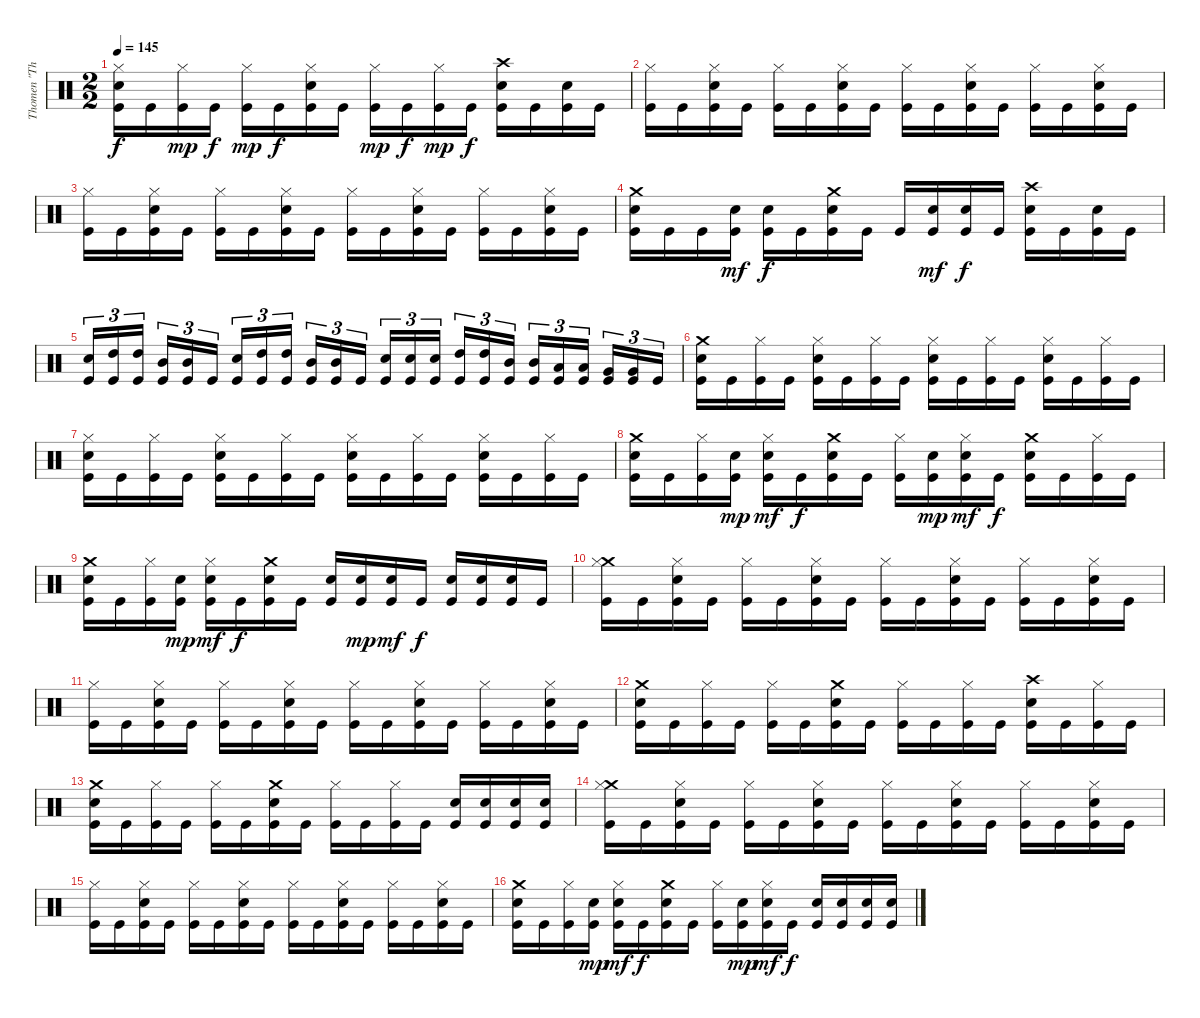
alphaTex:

\track ("Thomen \"The Omen\" Stauch" "Thomen \"Th") {instrument percussion}
\staff {score}
\articulation defaults
\ts (2 2)
\tempo 145
\clef neutral
\ks c
("Hi-Hat (closed)" "Snare (hit) 2" "Kick (hit)").16{dy f} "Kick (hit)".16 ("Hi-Hat (closed)" "Kick (hit)").16{dy mp} "Kick (hit)".16{dy f} ("Hi-Hat (closed)" "Kick (hit)").16{dy mp} "Kick (hit)".16{dy f} ("Hi-Hat (closed)" "Snare (hit) 2" "Kick (hit)").16 "Kick (hit)".16 ("Hi-Hat (closed)" "Kick (hit)").16{dy mp} "Kick (hit)".16{dy f} ("Hi-Hat (closed)" "Kick (hit)").16{dy mp} "Kick (hit)".16{dy f} ("Crash high (hit)" "Snare (hit) 2" "Kick (hit)").16 "Kick (hit)".16 ("Snare (hit) 2" "Kick (hit)").16 "Kick (hit)".16 |
("Hi-Hat (closed)" "Kick (hit)").16 "Kick (hit)".16 ("Hi-Hat (closed)" "Snare (hit) 2" "Kick (hit)").16 "Kick (hit)".16 ("Hi-Hat (closed)" "Kick (hit)").16 "Kick (hit)".16 ("Hi-Hat (closed)" "Snare (hit) 2" "Kick (hit)").16 "Kick (hit)".16 ("Hi-Hat (closed)" "Kick (hit)").16 "Kick (hit)".16 ("Hi-Hat (closed)" "Snare (hit) 2" "Kick (hit)").16 "Kick (hit)".16 ("Hi-Hat (closed)" "Kick (hit)").16 "Kick (hit)".16 ("Hi-Hat (closed)" "Snare (hit) 2" "Kick (hit)").16 "Kick (hit)".16 |
("Hi-Hat (closed)" "Kick (hit)").16 "Kick (hit)".16 ("Hi-Hat (closed)" "Snare (hit) 2" "Kick (hit)").16 "Kick (hit)".16 ("Hi-Hat (closed)" "Kick (hit)").16 "Kick (hit)".16 ("Hi-Hat (closed)" "Snare (hit) 2" "Kick (hit)").16 "Kick (hit)".16 ("Hi-Hat (closed)" "Kick (hit)").16 "Kick (hit)".16 ("Hi-Hat (closed)" "Snare (hit) 2" "Kick (hit)").16 "Kick (hit)".16 ("Hi-Hat (closed)" "Kick (hit)").16 "Kick (hit)".16 ("Hi-Hat (closed)" "Snare (hit) 2" "Kick (hit)").16 "Kick (hit)".16 |
("Crash medium (hit)" "Snare (hit) 2" "Kick (hit)").16 "Kick (hit)".16 "Kick (hit)".16 ("Snare (hit) 2" "Kick (hit)").16{dy mf} ("Snare (hit) 2" "Kick (hit)").16{dy f} "Kick (hit)".16 ("Crash medium (hit)" "Snare (hit) 2" "Kick (hit)").16 "Kick (hit)".16 "Kick (hit)".16 ("Snare (hit) 2" "Kick (hit)").16{dy mf} ("Snare (hit) 2" "Kick (hit)").16{dy f} "Kick (hit)".16 ("Crash high (hit)" "Snare (hit) 2" "Kick (hit)").16 "Kick (hit)".16 ("Snare (hit) 2" "Kick (hit)").16 "Kick (hit)".16 |
("Snare (hit) 2" "Kick (hit)").16{tu (3 2)} ("High Tom (hit)" "Kick (hit)").16{tu (3 2)} ("High Tom (hit)" "Kick (hit)").16{tu (3 2)} ("Mid Tom (hit)" "Kick (hit)").16{tu (3 2)} ("Mid Tom (hit)" "Kick (hit)").16{tu (3 2)} "Kick (hit)".16{tu (3 2)} ("Snare (hit) 2" "Kick (hit)").16{tu (3 2)} ("High Tom (hit)" "Kick (hit)").16{tu (3 2)} ("High Tom (hit)" "Kick (hit)").16{tu (3 2)} ("Mid Tom (hit)" "Kick (hit)").16{tu (3 2)} ("Mid Tom (hit)" "Kick (hit)").16{tu (3 2)} "Kick (hit)".16{tu (3 2)} ("Snare (hit) 2" "Kick (hit)").16{tu (3 2)} ("Snare (hit) 2" "Kick (hit)").16{tu (3 2)} ("Snare (hit) 2" "Kick (hit)").16{tu (3 2)} ("High Tom (hit)" "Kick (hit)").16{tu (3 2)} ("High Tom (hit)" "Kick (hit)").16{tu (3 2)} ("Mid Tom (hit)" "Kick (hit)").16{tu (3 2)} ("Mid Tom (hit)" "Kick (hit)").16{tu (3 2)} ("Low Tom (hit)" "Kick (hit)").16{tu (3 2)} ("Low Tom (hit)" "Kick (hit)").16{tu (3 2)} ("Very Low Tom (hit)" "Kick (hit)").16{tu (3 2)} ("Very Low Tom (hit)" "Kick (hit)").16{tu (3 2)} "Kick (hit)".16{tu (3 2)} |
("Crash medium (hit)" "Snare (hit) 2" "Kick (hit)").16 "Kick (hit)".16 ("Hi-Hat (closed)" "Kick (hit)").16 "Kick (hit)".16 ("Hi-Hat (closed)" "Snare (hit) 2" "Kick (hit)").16 "Kick (hit)".16 ("Hi-Hat (closed)" "Kick (hit)").16 "Kick (hit)".16 ("Hi-Hat (closed)" "Snare (hit) 2" "Kick (hit)").16 "Kick (hit)".16 ("Hi-Hat (closed)" "Kick (hit)").16 "Kick (hit)".16 ("Hi-Hat (closed)" "Snare (hit) 2" "Kick (hit)").16 "Kick (hit)".16 ("Hi-Hat (closed)" "Kick (hit)").16 "Kick (hit)".16 |
("Hi-Hat (closed)" "Snare (hit) 2" "Kick (hit)").16 "Kick (hit)".16 ("Hi-Hat (closed)" "Kick (hit)").16 "Kick (hit)".16 ("Hi-Hat (closed)" "Snare (hit) 2" "Kick (hit)").16 "Kick (hit)".16 ("Hi-Hat (closed)" "Kick (hit)").16 "Kick (hit)".16 ("Hi-Hat (closed)" "Snare (hit) 2" "Kick (hit)").16 "Kick (hit)".16 ("Hi-Hat (closed)" "Kick (hit)").16 "Kick (hit)".16 ("Hi-Hat (closed)" "Snare (hit) 2" "Kick (hit)").16 "Kick (hit)".16 ("Hi-Hat (closed)" "Kick (hit)").16 "Kick (hit)".16 |
("Crash medium (hit)" "Snare (hit) 2" "Kick (hit)").16 "Kick (hit)".16 ("Hi-Hat (closed)" "Kick (hit)").16 ("Snare (hit) 2" "Kick (hit)").16{dy mp} ("Hi-Hat (closed)" "Snare (hit) 2" "Kick (hit)").16{dy mf} "Kick (hit)".16{dy f} ("Crash medium (hit)" "Snare (hit) 2" "Kick (hit)").16 "Kick (hit)".16 ("Hi-Hat (closed)" "Kick (hit)").16 ("Snare (hit) 2" "Kick (hit)").16{dy mp} ("Hi-Hat (closed)" "Snare (hit) 2" "Kick (hit)").16{dy mf} "Kick (hit)".16{dy f} ("Crash medium (hit)" "Snare (hit) 2" "Kick (hit)").16 "Kick (hit)".16 ("Hi-Hat (closed)" "Kick (hit)").16 "Kick (hit)".16 |
("Crash medium (hit)" "Snare (hit) 2" "Kick (hit)").16 "Kick (hit)".16 ("Hi-Hat (closed)" "Kick (hit)").16 ("Snare (hit) 2" "Kick (hit)").16{dy mp} ("Hi-Hat (closed)" "Snare (hit) 2" "Kick (hit)").16{dy mf} "Kick (hit)".16{dy f} ("Crash medium (hit)" "Snare (hit) 2" "Kick (hit)").16 "Kick (hit)".16 ("Snare (hit) 2" "Kick (hit)").16 ("Snare (hit) 2" "Kick (hit)").16{dy mp} ("Snare (hit) 2" "Kick (hit)").16{dy mf} "Kick (hit)".16{dy f} ("Snare (hit) 2" "Kick (hit)").16 ("Snare (hit) 2" "Kick (hit)").16 ("Snare (hit) 2" "Kick (hit)").16 "Kick (hit)".16 |
("Crash medium (hit)" "Hi-Hat (closed)" "Kick (hit)").16 "Kick (hit)".16 ("Hi-Hat (closed)" "Snare (hit) 2" "Kick (hit)").16 "Kick (hit)".16 ("Hi-Hat (closed)" "Kick (hit)").16 "Kick (hit)".16 ("Hi-Hat (closed)" "Snare (hit) 2" "Kick (hit)").16 "Kick (hit)".16 ("Hi-Hat (closed)" "Kick (hit)").16 "Kick (hit)".16 ("Hi-Hat (closed)" "Snare (hit) 2" "Kick (hit)").16 "Kick (hit)".16 ("Hi-Hat (closed)" "Kick (hit)").16 "Kick (hit)".16 ("Hi-Hat (closed)" "Snare (hit) 2" "Kick (hit)").16 "Kick (hit)".16 |
("Hi-Hat (closed)" "Kick (hit)").16 "Kick (hit)".16 ("Hi-Hat (closed)" "Snare (hit) 2" "Kick (hit)").16 "Kick (hit)".16 ("Hi-Hat (closed)" "Kick (hit)").16 "Kick (hit)".16 ("Hi-Hat (closed)" "Snare (hit) 2" "Kick (hit)").16 "Kick (hit)".16 ("Hi-Hat (closed)" "Kick (hit)").16 "Kick (hit)".16 ("Hi-Hat (closed)" "Snare (hit) 2" "Kick (hit)").16 "Kick (hit)".16 ("Hi-Hat (closed)" "Kick (hit)").16 "Kick (hit)".16 ("Hi-Hat (closed)" "Snare (hit) 2" "Kick (hit)").16 "Kick (hit)".16 |
("Crash medium (hit)" "Snare (hit) 2" "Kick (hit)").16 "Kick (hit)".16 ("Hi-Hat (closed)" "Kick (hit)").16 "Kick (hit)".16 ("Hi-Hat (closed)" "Kick (hit)").16 "Kick (hit)".16 ("Crash medium (hit)" "Snare (hit) 2" "Kick (hit)").16 "Kick (hit)".16 ("Hi-Hat (closed)" "Kick (hit)").16 "Kick (hit)".16 ("Hi-Hat (closed)" "Kick (hit)").16 "Kick (hit)".16 ("Crash high (hit)" "Snare (hit) 2" "Kick (hit)").16 "Kick (hit)".16 ("Hi-Hat (closed)" "Kick (hit)").16 "Kick (hit)".16 |
("Crash medium (hit)" "Snare (hit) 2" "Kick (hit)").16 "Kick (hit)".16 ("Hi-Hat (closed)" "Kick (hit)").16 "Kick (hit)".16 ("Hi-Hat (closed)" "Kick (hit)").16 "Kick (hit)".16 ("Crash medium (hit)" "Snare (hit) 2" "Kick (hit)").16 "Kick (hit)".16 ("Hi-Hat (closed)" "Kick (hit)").16 "Kick (hit)".16 ("Hi-Hat (closed)" "Kick (hit)").16 "Kick (hit)".16 ("Snare (hit) 2" "Kick (hit)").16 ("Snare (hit) 2" "Kick (hit)").16 ("Snare (hit) 2" "Kick (hit)").16 ("Snare (hit) 2" "Kick (hit)").16 |
("Crash medium (hit)" "Hi-Hat (closed)" "Kick (hit)").16 "Kick (hit)".16 ("Hi-Hat (closed)" "Snare (hit) 2" "Kick (hit)").16 "Kick (hit)".16 ("Hi-Hat (closed)" "Kick (hit)").16 "Kick (hit)".16 ("Hi-Hat (closed)" "Snare (hit) 2" "Kick (hit)").16 "Kick (hit)".16 ("Hi-Hat (closed)" "Kick (hit)").16 "Kick (hit)".16 ("Hi-Hat (closed)" "Snare (hit) 2" "Kick (hit)").16 "Kick (hit)".16 ("Hi-Hat (closed)" "Kick (hit)").16 "Kick (hit)".16 ("Hi-Hat (closed)" "Snare (hit) 2" "Kick (hit)").16 "Kick (hit)".16 |
("Hi-Hat (closed)" "Kick (hit)").16 "Kick (hit)".16 ("Hi-Hat (closed)" "Snare (hit) 2" "Kick (hit)").16 "Kick (hit)".16 ("Hi-Hat (closed)" "Kick (hit)").16 "Kick (hit)".16 ("Hi-Hat (closed)" "Snare (hit) 2" "Kick (hit)").16 "Kick (hit)".16 ("Hi-Hat (closed)" "Kick (hit)").16 "Kick (hit)".16 ("Hi-Hat (closed)" "Snare (hit) 2" "Kick (hit)").16 "Kick (hit)".16 ("Hi-Hat (closed)" "Kick (hit)").16 "Kick (hit)".16 ("Hi-Hat (closed)" "Snare (hit) 2" "Kick (hit)").16 "Kick (hit)".16 |
("Crash medium (hit)" "Snare (hit) 2" "Kick (hit)").16 "Kick (hit)".16 ("Hi-Hat (closed)" "Kick (hit)").16 ("Snare (hit) 2" "Kick (hit)").16{dy mp} ("Hi-Hat (closed)" "Snare (hit) 2" "Kick (hit)").16{dy mf} "Kick (hit)".16{dy f} ("Crash medium (hit)" "Snare (hit) 2" "Kick (hit)").16 "Kick (hit)".16 ("Hi-Hat (closed)" "Kick (hit)").16 ("Snare (hit) 2" "Kick (hit)").16{dy mp} ("Hi-Hat (closed)" "Snare (hit) 2" "Kick (hit)").16{dy mf} "Kick (hit)".16{dy f} ("Snare (hit) 2" "Kick (hit)").16 ("Snare (hit) 2" "Kick (hit)").16 ("Snare (hit) 2" "Kick (hit)").16 ("Snare (hit) 2" "Kick (hit)").16
